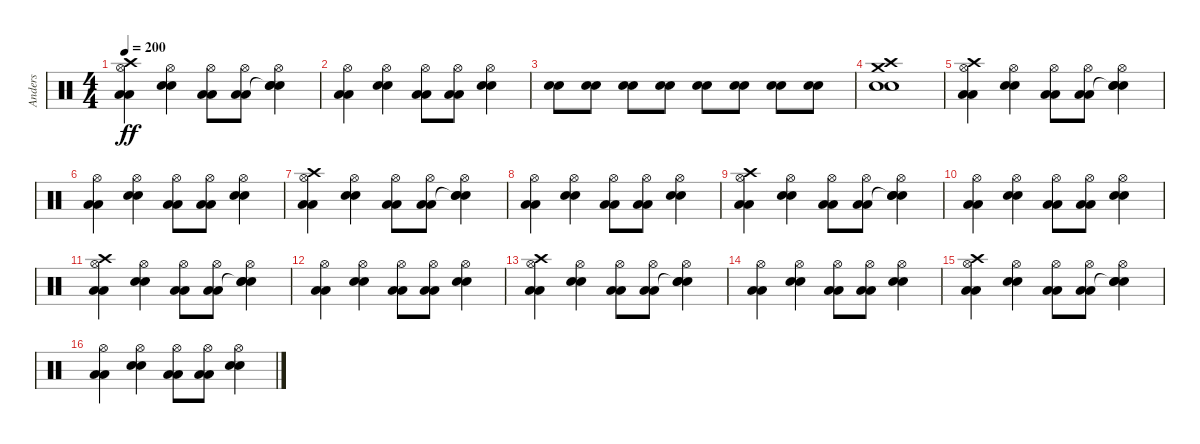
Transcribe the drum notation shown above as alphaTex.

\track ("Anders" "Anders") {instrument percussion}
\staff {score}
\articulation defaults
\ts (4 4)
\tempo 200
\clef neutral
\ks c
("Hi-Hat (open)" "Crash high (hit)" "Low Floor Tom (hit)" "Low Floor Tom (hit)").4{dy ff} ("Hi-Hat (open)" "Electric Snare (hit)" "Electric Snare (hit)").4 ("Hi-Hat (open)" "Low Floor Tom (hit)" "Low Floor Tom (hit)").8 ("Hi-Hat (open)" "Low Floor Tom (hit)" "Low Floor Tom (hit)").8 ("Hi-Hat (open)" "Snare (hit)"{t} "Electric Snare (hit)" "Electric Snare (hit)").4 |
("Hi-Hat (open)" "Low Floor Tom (hit)" "Low Floor Tom (hit)").4 ("Hi-Hat (open)" "Electric Snare (hit)" "Electric Snare (hit)").4 ("Hi-Hat (open)" "Low Floor Tom (hit)" "Low Floor Tom (hit)").8 ("Hi-Hat (open)" "Low Floor Tom (hit)" "Low Floor Tom (hit)").8 ("Hi-Hat (open)" "Electric Snare (hit)" "Electric Snare (hit)").4 |
("Electric Snare (hit)" "Electric Snare (hit)").8 ("Electric Snare (hit)" "Electric Snare (hit)").8 ("Electric Snare (hit)" "Electric Snare (hit)").8 ("Electric Snare (hit)" "Electric Snare (hit)").8 ("Electric Snare (hit)" "Electric Snare (hit)").8 ("Electric Snare (hit)" "Electric Snare (hit)").8 ("Electric Snare (hit)" "Electric Snare (hit)").8 ("Electric Snare (hit)" "Electric Snare (hit)").8 |
("Crash high (hit)" "Crash medium (hit)" "Electric Snare (hit)" "Electric Snare (hit)").1 |
("Hi-Hat (open)" "Crash high (hit)" "Low Floor Tom (hit)" "Low Floor Tom (hit)").4 ("Hi-Hat (open)" "Electric Snare (hit)" "Electric Snare (hit)").4 ("Hi-Hat (open)" "Low Floor Tom (hit)" "Low Floor Tom (hit)").8 ("Hi-Hat (open)" "Low Floor Tom (hit)" "Low Floor Tom (hit)").8 ("Hi-Hat (open)" "Snare (hit)"{t} "Electric Snare (hit)" "Electric Snare (hit)").4 |
("Hi-Hat (open)" "Low Floor Tom (hit)" "Low Floor Tom (hit)").4 ("Hi-Hat (open)" "Electric Snare (hit)" "Electric Snare (hit)").4 ("Hi-Hat (open)" "Low Floor Tom (hit)" "Low Floor Tom (hit)").8 ("Hi-Hat (open)" "Low Floor Tom (hit)" "Low Floor Tom (hit)").8 ("Hi-Hat (open)" "Electric Snare (hit)" "Electric Snare (hit)").4 |
("Hi-Hat (open)" "Crash high (hit)" "Low Floor Tom (hit)" "Low Floor Tom (hit)").4 ("Hi-Hat (open)" "Electric Snare (hit)" "Electric Snare (hit)").4 ("Hi-Hat (open)" "Low Floor Tom (hit)" "Low Floor Tom (hit)").8 ("Hi-Hat (open)" "Low Floor Tom (hit)" "Low Floor Tom (hit)").8 ("Hi-Hat (open)" "Snare (hit)"{t} "Electric Snare (hit)" "Electric Snare (hit)").4 |
("Hi-Hat (open)" "Low Floor Tom (hit)" "Low Floor Tom (hit)").4 ("Hi-Hat (open)" "Electric Snare (hit)" "Electric Snare (hit)").4 ("Hi-Hat (open)" "Low Floor Tom (hit)" "Low Floor Tom (hit)").8 ("Hi-Hat (open)" "Low Floor Tom (hit)" "Low Floor Tom (hit)").8 ("Hi-Hat (open)" "Electric Snare (hit)" "Electric Snare (hit)").4 |
("Hi-Hat (open)" "Crash high (hit)" "Low Floor Tom (hit)" "Low Floor Tom (hit)").4 ("Hi-Hat (open)" "Electric Snare (hit)" "Electric Snare (hit)").4 ("Hi-Hat (open)" "Low Floor Tom (hit)" "Low Floor Tom (hit)").8 ("Hi-Hat (open)" "Low Floor Tom (hit)" "Low Floor Tom (hit)").8 ("Hi-Hat (open)" "Snare (hit)"{t} "Electric Snare (hit)" "Electric Snare (hit)").4 |
("Hi-Hat (open)" "Low Floor Tom (hit)" "Low Floor Tom (hit)").4 ("Hi-Hat (open)" "Electric Snare (hit)" "Electric Snare (hit)").4 ("Hi-Hat (open)" "Low Floor Tom (hit)" "Low Floor Tom (hit)").8 ("Hi-Hat (open)" "Low Floor Tom (hit)" "Low Floor Tom (hit)").8 ("Hi-Hat (open)" "Electric Snare (hit)" "Electric Snare (hit)").4 |
("Hi-Hat (open)" "Crash high (hit)" "Low Floor Tom (hit)" "Low Floor Tom (hit)").4 ("Hi-Hat (open)" "Electric Snare (hit)" "Electric Snare (hit)").4 ("Hi-Hat (open)" "Low Floor Tom (hit)" "Low Floor Tom (hit)").8 ("Hi-Hat (open)" "Low Floor Tom (hit)" "Low Floor Tom (hit)").8 ("Hi-Hat (open)" "Snare (hit)"{t} "Electric Snare (hit)" "Electric Snare (hit)").4 |
("Hi-Hat (open)" "Low Floor Tom (hit)" "Low Floor Tom (hit)").4 ("Hi-Hat (open)" "Electric Snare (hit)" "Electric Snare (hit)").4 ("Hi-Hat (open)" "Low Floor Tom (hit)" "Low Floor Tom (hit)").8 ("Hi-Hat (open)" "Low Floor Tom (hit)" "Low Floor Tom (hit)").8 ("Hi-Hat (open)" "Electric Snare (hit)" "Electric Snare (hit)").4 |
("Hi-Hat (open)" "Crash high (hit)" "Low Floor Tom (hit)" "Low Floor Tom (hit)").4 ("Hi-Hat (open)" "Electric Snare (hit)" "Electric Snare (hit)").4 ("Hi-Hat (open)" "Low Floor Tom (hit)" "Low Floor Tom (hit)").8 ("Hi-Hat (open)" "Low Floor Tom (hit)" "Low Floor Tom (hit)").8 ("Hi-Hat (open)" "Snare (hit)"{t} "Electric Snare (hit)" "Electric Snare (hit)").4 |
("Hi-Hat (open)" "Low Floor Tom (hit)" "Low Floor Tom (hit)").4 ("Hi-Hat (open)" "Electric Snare (hit)" "Electric Snare (hit)").4 ("Hi-Hat (open)" "Low Floor Tom (hit)" "Low Floor Tom (hit)").8 ("Hi-Hat (open)" "Low Floor Tom (hit)" "Low Floor Tom (hit)").8 ("Hi-Hat (open)" "Electric Snare (hit)" "Electric Snare (hit)").4 |
("Hi-Hat (open)" "Crash high (hit)" "Low Floor Tom (hit)" "Low Floor Tom (hit)").4 ("Hi-Hat (open)" "Electric Snare (hit)" "Electric Snare (hit)").4 ("Hi-Hat (open)" "Low Floor Tom (hit)" "Low Floor Tom (hit)").8 ("Hi-Hat (open)" "Low Floor Tom (hit)" "Low Floor Tom (hit)").8 ("Hi-Hat (open)" "Snare (hit)"{t} "Electric Snare (hit)" "Electric Snare (hit)").4 |
("Hi-Hat (open)" "Low Floor Tom (hit)" "Low Floor Tom (hit)").4 ("Hi-Hat (open)" "Electric Snare (hit)" "Electric Snare (hit)").4 ("Hi-Hat (open)" "Low Floor Tom (hit)" "Low Floor Tom (hit)").8 ("Hi-Hat (open)" "Low Floor Tom (hit)" "Low Floor Tom (hit)").8 ("Hi-Hat (open)" "Electric Snare (hit)" "Electric Snare (hit)").4
